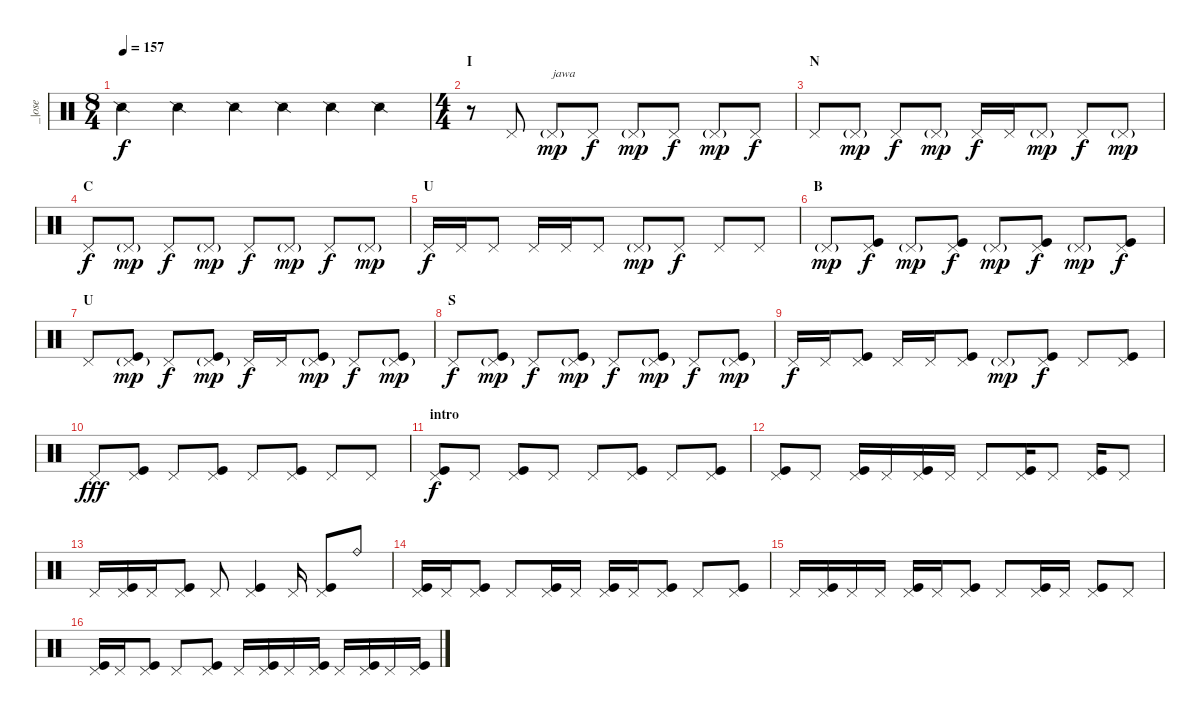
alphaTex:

\track ("_|ose" "_|ose") {instrument percussion}
\staff {score}
\articulation defaults
\ts (8 4)
\tempo 157
\clef neutral
\ks c "Snare (side stick) 2".2{dy f} "Snare (side stick) 2".2 "Snare (side stick) 2".4 "Snare (side stick) 2".4 "Snare (side stick) 2".4 "Snare (side stick) 2".4
|
\ts (4 4)
\section ("" "I")
r.8 "Pedal Hi-Hat (hit)".8 "Pedal Hi-Hat (hit)"{g}.8{txt "jawa" dy mp} "Pedal Hi-Hat (hit)".8{dy f} "Pedal Hi-Hat (hit)"{g}.8{dy mp} "Pedal Hi-Hat (hit)".8{dy f} "Pedal Hi-Hat (hit)"{g}.8{dy mp} "Pedal Hi-Hat (hit)".8{dy f} |
\section ("" "N")
"Pedal Hi-Hat (hit)".8 "Pedal Hi-Hat (hit)"{g}.8{dy mp} "Pedal Hi-Hat (hit)".8{dy f} "Pedal Hi-Hat (hit)"{g}.8{dy mp} "Pedal Hi-Hat (hit)".16{dy f} "Pedal Hi-Hat (hit)".16 "Pedal Hi-Hat (hit)"{g}.8{dy mp} "Pedal Hi-Hat (hit)".8{dy f} "Pedal Hi-Hat (hit)"{g}.8{dy mp} |
\section ("" "C")
"Pedal Hi-Hat (hit)".8{dy f} "Pedal Hi-Hat (hit)"{g}.8{dy mp} "Pedal Hi-Hat (hit)".8{dy f} "Pedal Hi-Hat (hit)"{g}.8{dy mp} "Pedal Hi-Hat (hit)".8{dy f} "Pedal Hi-Hat (hit)"{g}.8{dy mp} "Pedal Hi-Hat (hit)".8{dy f} "Pedal Hi-Hat (hit)"{g}.8{dy mp} |
\section ("" "U")
"Pedal Hi-Hat (hit)".16{dy f} "Pedal Hi-Hat (hit)".16 "Pedal Hi-Hat (hit)".8 "Pedal Hi-Hat (hit)".16 "Pedal Hi-Hat (hit)".16 "Pedal Hi-Hat (hit)".8 "Pedal Hi-Hat (hit)"{g}.8{dy mp} "Pedal Hi-Hat (hit)".8{dy f} "Pedal Hi-Hat (hit)".8 "Pedal Hi-Hat (hit)".8 |
\section ("" "B")
"Pedal Hi-Hat (hit)"{g}.8{dy mp} ("Kick (hit)" "Pedal Hi-Hat (hit)").8{dy f} "Pedal Hi-Hat (hit)"{g}.8{dy mp} ("Kick (hit)" "Pedal Hi-Hat (hit)").8{dy f} "Pedal Hi-Hat (hit)"{g}.8{dy mp} ("Kick (hit)" "Pedal Hi-Hat (hit)").8{dy f} "Pedal Hi-Hat (hit)"{g}.8{dy mp} ("Kick (hit)" "Pedal Hi-Hat (hit)").8{dy f} |
\section ("" "U")
"Pedal Hi-Hat (hit)".8 ("Kick (hit)" "Pedal Hi-Hat (hit)"{g}).8{dy mp} "Pedal Hi-Hat (hit)".8{dy f} ("Kick (hit)" "Pedal Hi-Hat (hit)"{g}).8{dy mp} "Pedal Hi-Hat (hit)".16{dy f} "Pedal Hi-Hat (hit)".16 ("Kick (hit)" "Pedal Hi-Hat (hit)"{g}).8{dy mp} "Pedal Hi-Hat (hit)".8{dy f} ("Kick (hit)" "Pedal Hi-Hat (hit)"{g}).8{dy mp} |
\section ("" "S")
"Pedal Hi-Hat (hit)".8{dy f} ("Kick (hit)" "Pedal Hi-Hat (hit)"{g}).8{dy mp} "Pedal Hi-Hat (hit)".8{dy f} ("Kick (hit)" "Pedal Hi-Hat (hit)"{g}).8{dy mp} "Pedal Hi-Hat (hit)".8{dy f} ("Kick (hit)" "Pedal Hi-Hat (hit)"{g}).8{dy mp} "Pedal Hi-Hat (hit)".8{dy f} ("Kick (hit)" "Pedal Hi-Hat (hit)"{g}).8{dy mp} |
\section ("" "")
"Pedal Hi-Hat (hit)".16{dy f} "Pedal Hi-Hat (hit)".16 ("Kick (hit)" "Pedal Hi-Hat (hit)").8 "Pedal Hi-Hat (hit)".16 "Pedal Hi-Hat (hit)".16 ("Kick (hit)" "Pedal Hi-Hat (hit)").8 "Pedal Hi-Hat (hit)"{g}.8{dy mp} ("Kick (hit)" "Pedal Hi-Hat (hit)").8{dy f} "Pedal Hi-Hat (hit)".8 ("Kick (hit)" "Pedal Hi-Hat (hit)").8 |
\section ("" "")
"Pedal Hi-Hat (hit)".8{dy fff} ("Kick (hit)" "Pedal Hi-Hat (hit)").8 "Pedal Hi-Hat (hit)".8 ("Kick (hit)" "Pedal Hi-Hat (hit)").8 "Pedal Hi-Hat (hit)".8 ("Kick (hit)" "Pedal Hi-Hat (hit)").8 "Pedal Hi-Hat (hit)".8 "Pedal Hi-Hat (hit)".8 |
\section ("" "intro")
("Kick (hit)" "Pedal Hi-Hat (hit)").8{dy f} "Pedal Hi-Hat (hit)".8 ("Kick (hit)" "Pedal Hi-Hat (hit)").8 "Pedal Hi-Hat (hit)".8 "Pedal Hi-Hat (hit)".8 ("Kick (hit)" "Pedal Hi-Hat (hit)").8 "Pedal Hi-Hat (hit)".8 ("Kick (hit)" "Pedal Hi-Hat (hit)").8 |
("Kick (hit)" "Pedal Hi-Hat (hit)").8 "Pedal Hi-Hat (hit)".8 ("Kick (hit)" "Pedal Hi-Hat (hit)").16 "Pedal Hi-Hat (hit)".16 ("Kick (hit)" "Pedal Hi-Hat (hit)").16 "Pedal Hi-Hat (hit)".16 "Pedal Hi-Hat (hit)".8 ("Kick (hit)" "Pedal Hi-Hat (hit)").16 "Pedal Hi-Hat (hit)".8 ("Kick (hit)" "Pedal Hi-Hat (hit)").16 "Pedal Hi-Hat (hit)".8 |
"Pedal Hi-Hat (hit)".16 ("Kick (hit)" "Pedal Hi-Hat (hit)").16 "Pedal Hi-Hat (hit)".16 ("Kick (hit)" "Pedal Hi-Hat (hit)").8 "Pedal Hi-Hat (hit)".8 ("Kick (hit)" "Pedal Hi-Hat (hit)").4 "Pedal Hi-Hat (hit)".16 ("Kick (hit)" "Pedal Hi-Hat (hit)").8 "Ride (bell)".8 |
("Pedal Hi-Hat (hit)" "Kick (hit)").16 "Pedal Hi-Hat (hit)".16 ("Pedal Hi-Hat (hit)" "Kick (hit)").8 "Pedal Hi-Hat (hit)".8 ("Kick (hit)" "Pedal Hi-Hat (hit)").16 "Pedal Hi-Hat (hit)".16 ("Kick (hit)" "Pedal Hi-Hat (hit)").16 "Pedal Hi-Hat (hit)".16 ("Kick (hit)" "Pedal Hi-Hat (hit)").8 "Pedal Hi-Hat (hit)".8 ("Kick (hit)" "Pedal Hi-Hat (hit)").8 |
"Pedal Hi-Hat (hit)".16 ("Kick (hit)" "Pedal Hi-Hat (hit)").16 "Pedal Hi-Hat (hit)".16 "Pedal Hi-Hat (hit)".16 ("Kick (hit)" "Pedal Hi-Hat (hit)").16 "Pedal Hi-Hat (hit)".16 ("Kick (hit)" "Pedal Hi-Hat (hit)").8 "Pedal Hi-Hat (hit)".8 ("Kick (hit)" "Pedal Hi-Hat (hit)").16 "Pedal Hi-Hat (hit)".16 ("Kick (hit)" "Pedal Hi-Hat (hit)").8 "Pedal Hi-Hat (hit)".8 |
("Kick (hit)" "Pedal Hi-Hat (hit)").16 "Pedal Hi-Hat (hit)".16 ("Kick (hit)" "Pedal Hi-Hat (hit)").8 "Pedal Hi-Hat (hit)".8 ("Kick (hit)" "Pedal Hi-Hat (hit)").8 "Pedal Hi-Hat (hit)".16 ("Kick (hit)" "Pedal Hi-Hat (hit)").16 "Pedal Hi-Hat (hit)".16 ("Kick (hit)" "Pedal Hi-Hat (hit)").16 "Pedal Hi-Hat (hit)".16 ("Kick (hit)" "Pedal Hi-Hat (hit)").16 "Pedal Hi-Hat (hit)".16 ("Kick (hit)" "Pedal Hi-Hat (hit)").16
